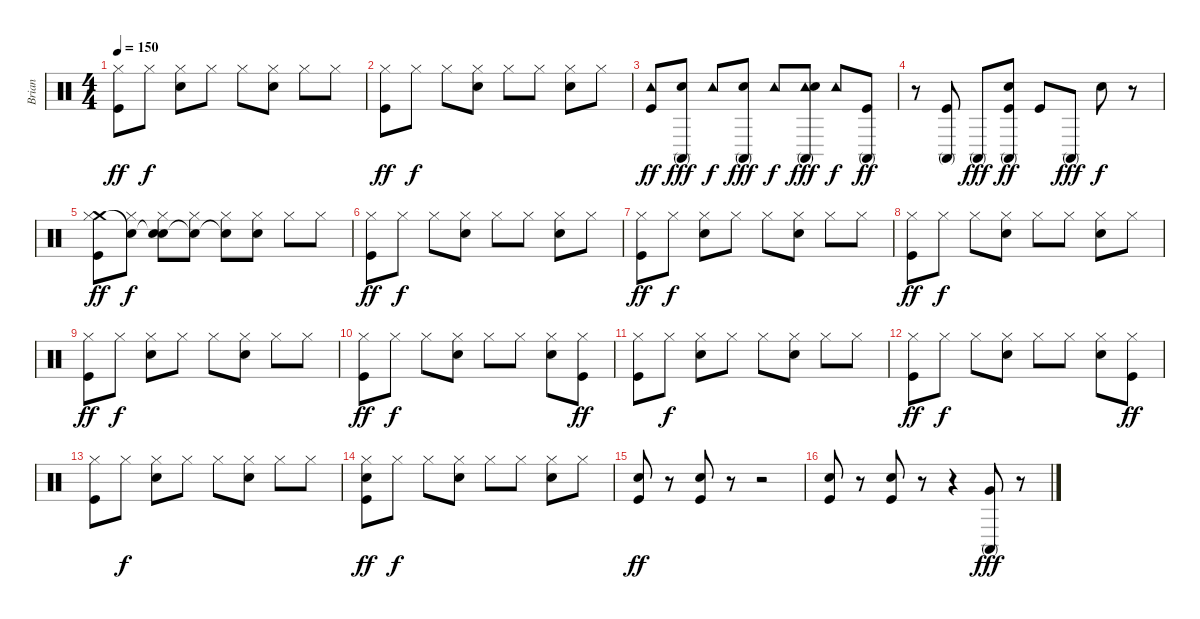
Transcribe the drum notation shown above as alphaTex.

\track ("Brian" "Brian") {instrument percussion}
\staff {score}
\articulation defaults
\ts (4 4)
\tempo 150
\clef neutral
\ks c
("Hi-Hat (closed)" "Kick (hit)").8{dy ff} "Hi-Hat (closed)".8{dy f} ("Hi-Hat (closed)" "Snare (hit) 2").8 "Hi-Hat (closed)".8 "Hi-Hat (closed)".8 ("Hi-Hat (closed)" "Snare (hit) 2").8 "Hi-Hat (closed)".8 "Hi-Hat (closed)".8 |
("Hi-Hat (closed)" "Kick (hit)").8{dy ff} "Hi-Hat (closed)".8{dy f} "Hi-Hat (closed)".8 ("Hi-Hat (closed)" "Snare (hit) 2").8 "Hi-Hat (closed)".8 "Hi-Hat (closed)".8 ("Hi-Hat (closed)" "Snare (hit) 2").8 "Hi-Hat (closed)".8 |
("Tambourine (hit)" "Kick (hit)").8{dy ff} ("Conga high (mute)" "Snare (hit) 2").8{dy fff} "Tambourine (hit)".8{dy f} ("Conga high (mute)" "Snare (hit) 2").8{dy fff} "Tambourine (hit)".8{dy f} ("Conga high (mute)" "Tambourine (hit)" "Snare (hit) 2").8{dy fff} "Tambourine (hit)".8{dy f} ("Conga high (mute)" "Kick (hit)").8{dy ff} |
r.8 ("Conga high (mute)" "Kick (hit)").8 "Conga high (mute)".8{dy fff} ("Conga high (mute)" "Snare (hit) 2" "Kick (hit)").8{dy ff} "Kick (hit)".8 "Conga high (mute)".8{dy fff} "Snare (hit) 2".8{dy f} r.8 |
("Crash medium (hit)" "Hi-Hat (closed)" "Kick (hit)").8{dy ff} ("Snare (hit)"{t} "Hi-Hat (closed)").8{dy f} ("Snare (hit)"{t} "Hi-Hat (closed)" "Snare (hit) 2").8 ("Snare (hit)"{t} "Hi-Hat (closed)").8 ("Snare (hit)"{t} "Hi-Hat (closed)").8 ("Hi-Hat (closed)" "Snare (hit) 2").8 "Hi-Hat (closed)".8 "Hi-Hat (closed)".8 |
("Hi-Hat (closed)" "Kick (hit)").8{dy ff} "Hi-Hat (closed)".8{dy f} "Hi-Hat (closed)".8 ("Hi-Hat (closed)" "Snare (hit) 2").8 "Hi-Hat (closed)".8 "Hi-Hat (closed)".8 ("Hi-Hat (closed)" "Snare (hit) 2").8 "Hi-Hat (closed)".8 |
("Hi-Hat (closed)" "Kick (hit)").8{dy ff} "Hi-Hat (closed)".8{dy f} ("Hi-Hat (closed)" "Snare (hit) 2").8 "Hi-Hat (closed)".8 "Hi-Hat (closed)".8 ("Hi-Hat (closed)" "Snare (hit) 2").8 "Hi-Hat (closed)".8 "Hi-Hat (closed)".8 |
("Hi-Hat (closed)" "Kick (hit)").8{dy ff} "Hi-Hat (closed)".8{dy f} "Hi-Hat (closed)".8 ("Hi-Hat (closed)" "Snare (hit) 2").8 "Hi-Hat (closed)".8 "Hi-Hat (closed)".8 ("Hi-Hat (closed)" "Snare (hit) 2").8 "Hi-Hat (closed)".8 |
("Hi-Hat (closed)" "Kick (hit)").8{dy ff} "Hi-Hat (closed)".8{dy f} ("Hi-Hat (closed)" "Snare (hit) 2").8 "Hi-Hat (closed)".8 "Hi-Hat (closed)".8 ("Hi-Hat (closed)" "Snare (hit) 2").8 "Hi-Hat (closed)".8 "Hi-Hat (closed)".8 |
("Hi-Hat (closed)" "Kick (hit)").8{dy ff} "Hi-Hat (closed)".8{dy f} "Hi-Hat (closed)".8 ("Hi-Hat (closed)" "Snare (hit) 2").8 "Hi-Hat (closed)".8 "Hi-Hat (closed)".8 ("Hi-Hat (closed)" "Snare (hit) 2").8 ("Hi-Hat (closed)" "Kick (hit)").8{dy ff} |
("Hi-Hat (closed)" "Kick (hit)").8 "Hi-Hat (closed)".8{dy f} ("Hi-Hat (closed)" "Snare (hit) 2").8 "Hi-Hat (closed)".8 "Hi-Hat (closed)".8 ("Hi-Hat (closed)" "Snare (hit) 2").8 "Hi-Hat (closed)".8 "Hi-Hat (closed)".8 |
("Hi-Hat (closed)" "Kick (hit)").8{dy ff} "Hi-Hat (closed)".8{dy f} "Hi-Hat (closed)".8 ("Hi-Hat (closed)" "Snare (hit) 2").8 "Hi-Hat (closed)".8 "Hi-Hat (closed)".8 ("Hi-Hat (closed)" "Snare (hit) 2").8 ("Hi-Hat (closed)" "Kick (hit)").8{dy ff} |
("Hi-Hat (closed)" "Kick (hit)").8 "Hi-Hat (closed)".8{dy f} ("Hi-Hat (closed)" "Snare (hit) 2").8 "Hi-Hat (closed)".8 "Hi-Hat (closed)".8 ("Hi-Hat (closed)" "Snare (hit) 2").8 "Hi-Hat (closed)".8 "Hi-Hat (closed)".8 |
("Hi-Hat (closed)" "Snare (hit) 2" "Kick (hit)").8{dy ff} "Hi-Hat (closed)".8{dy f} "Hi-Hat (closed)".8 ("Hi-Hat (closed)" "Snare (hit) 2").8 "Hi-Hat (closed)".8 "Hi-Hat (closed)".8 ("Hi-Hat (closed)" "Snare (hit) 2").8 "Hi-Hat (closed)".8 |
("Snare (hit) 2" "Kick (hit)").8{dy ff} r.8 ("Snare (hit) 2" "Kick (hit)").8 r.8 r.2 |
("Snare (hit) 2" "Kick (hit)").8 r.8 ("Snare (hit) 2" "Kick (hit)").8 r.8 r.4 ("Conga high (mute)" "Very Low Tom (hit)").8{dy fff} r.8
